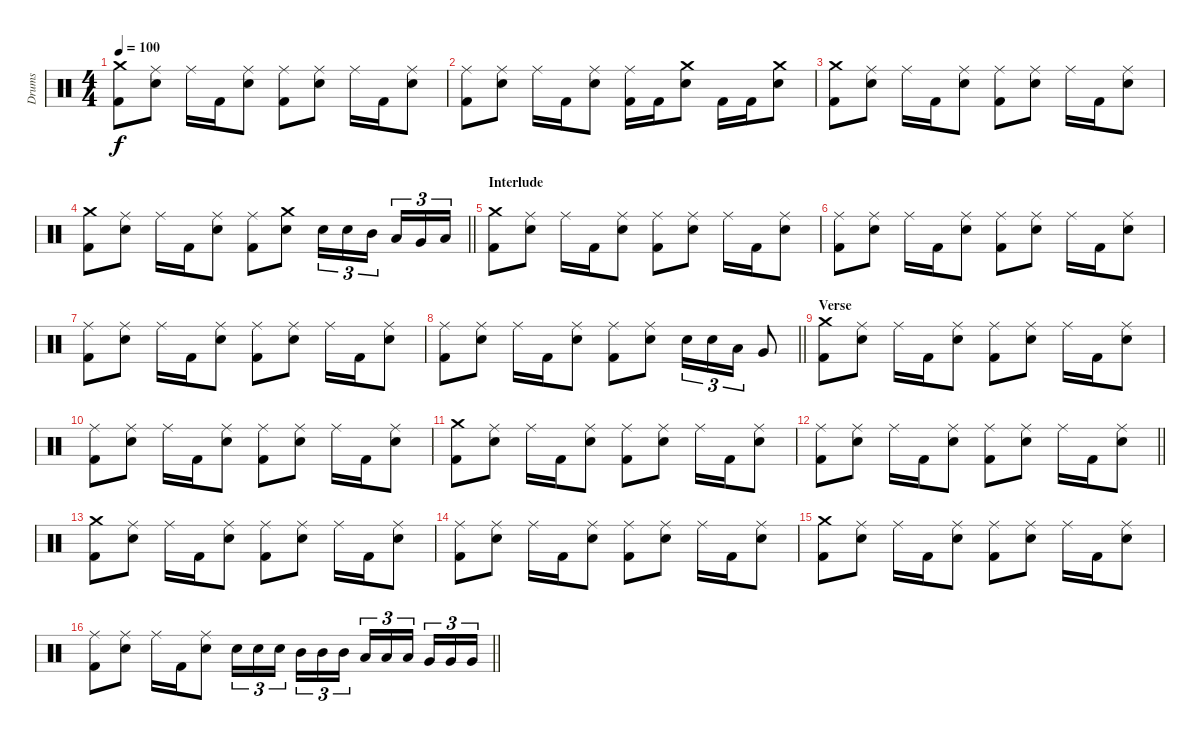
\track ("Drums" "Drums") {instrument percussion}
\staff {score}
\articulation defaults
\ts (4 4)
\tempo 100
\clef neutral
\ks c
("Crash medium (hit)" "Kick (hit) 2").8{dy f} ("Ride (middle)" "Electric Snare (hit)").8 "Ride (middle)".16 "Kick (hit) 2".16 ("Ride (middle)" "Electric Snare (hit)").8 ("Ride (middle)" "Kick (hit) 2").8 ("Ride (middle)" "Electric Snare (hit)").8 "Ride (middle)".16 "Kick (hit) 2".16 ("Ride (middle)" "Electric Snare (hit)").8 |
("Ride (middle)" "Kick (hit) 2").8 ("Ride (middle)" "Electric Snare (hit)").8 "Ride (middle)".16 "Kick (hit) 2".16 ("Ride (middle)" "Electric Snare (hit)").8 ("Ride (middle)" "Kick (hit) 2").16 "Kick (hit) 2".16 ("Crash medium (hit)" "Electric Snare (hit)").8 "Kick (hit) 2".16 "Kick (hit) 2".16 ("Crash medium (hit)" "Electric Snare (hit)").8 |
("Crash medium (hit)" "Kick (hit) 2").8 ("Ride (middle)" "Electric Snare (hit)").8 "Ride (middle)".16 "Kick (hit) 2".16 ("Ride (middle)" "Electric Snare (hit)").8 ("Ride (middle)" "Kick (hit) 2").8 ("Ride (middle)" "Electric Snare (hit)").8 "Ride (middle)".16 "Kick (hit) 2".16 ("Ride (middle)" "Electric Snare (hit)").8 |
\barLineRight lightlight
("Crash medium (hit)" "Kick (hit) 2").8 ("Ride (middle)" "Electric Snare (hit)").8 "Ride (middle)".16 "Kick (hit) 2".16 ("Ride (middle)" "Electric Snare (hit)").8 ("Ride (middle)" "Kick (hit) 2").8 ("Crash medium (hit)" "Electric Snare (hit)").8 "Electric Snare (hit)".16{tu (3 2)} "Electric Snare (hit)".16{tu (3 2)} "Mid Tom (hit)".16{tu (3 2)} "Low Tom (hit)".16{tu (3 2)} "Very Low Tom (hit)".16{tu (3 2)} "Low Floor Tom (hit)".16{tu (3 2)} |
\section ("" "Interlude")
("Crash medium (hit)" "Kick (hit) 2").8 ("Ride (middle)" "Electric Snare (hit)").8 "Ride (middle)".16 "Kick (hit) 2".16 ("Ride (middle)" "Electric Snare (hit)").8 ("Ride (middle)" "Kick (hit) 2").8 ("Ride (middle)" "Electric Snare (hit)").8 "Ride (middle)".16 "Kick (hit) 2".16 ("Ride (middle)" "Electric Snare (hit)").8 |
("Ride (middle)" "Kick (hit) 2").8 ("Ride (middle)" "Electric Snare (hit)").8 "Ride (middle)".16 "Kick (hit) 2".16 ("Ride (middle)" "Electric Snare (hit)").8 ("Ride (middle)" "Kick (hit) 2").8 ("Ride (middle)" "Electric Snare (hit)").8 "Ride (middle)".16 "Kick (hit) 2".16 ("Ride (middle)" "Electric Snare (hit)").8 |
("Ride (middle)" "Kick (hit) 2").8 ("Ride (middle)" "Electric Snare (hit)").8 "Ride (middle)".16 "Kick (hit) 2".16 ("Ride (middle)" "Electric Snare (hit)").8 ("Ride (middle)" "Kick (hit) 2").8 ("Ride (middle)" "Electric Snare (hit)").8 "Ride (middle)".16 "Kick (hit) 2".16 ("Ride (middle)" "Electric Snare (hit)").8 |
\barLineRight lightlight
("Ride (middle)" "Kick (hit) 2").8 ("Ride (middle)" "Electric Snare (hit)").8 "Ride (middle)".16 "Kick (hit) 2".16 ("Ride (middle)" "Electric Snare (hit)").8 ("Ride (middle)" "Kick (hit) 2").8 ("Ride (middle)" "Electric Snare (hit)").8 "Electric Snare (hit)".16{tu (3 2)} "Electric Snare (hit)".16{tu (3 2)} "Low Tom (hit)".16{tu (3 2)} "Very Low Tom (hit)".8 |
\section ("" "Verse")
("Crash medium (hit)" "Kick (hit) 2").8 ("Ride (middle)" "Electric Snare (hit)").8 "Ride (middle)".16 "Kick (hit) 2".16 ("Ride (middle)" "Electric Snare (hit)").8 ("Ride (middle)" "Kick (hit) 2").8 ("Ride (middle)" "Electric Snare (hit)").8 "Ride (middle)".16 "Kick (hit) 2".16 ("Ride (middle)" "Electric Snare (hit)").8 |
("Ride (middle)" "Kick (hit) 2").8 ("Ride (middle)" "Electric Snare (hit)").8 "Ride (middle)".16 "Kick (hit) 2".16 ("Ride (middle)" "Electric Snare (hit)").8 ("Ride (middle)" "Kick (hit) 2").8 ("Ride (middle)" "Electric Snare (hit)").8 "Ride (middle)".16 "Kick (hit) 2".16 ("Ride (middle)" "Electric Snare (hit)").8 |
("Crash medium (hit)" "Kick (hit) 2").8 ("Ride (middle)" "Electric Snare (hit)").8 "Ride (middle)".16 "Kick (hit) 2".16 ("Ride (middle)" "Electric Snare (hit)").8 ("Ride (middle)" "Kick (hit) 2").8 ("Ride (middle)" "Electric Snare (hit)").8 "Ride (middle)".16 "Kick (hit) 2".16 ("Ride (middle)" "Electric Snare (hit)").8 |
\barLineRight lightlight
("Ride (middle)" "Kick (hit) 2").8 ("Ride (middle)" "Electric Snare (hit)").8 "Ride (middle)".16 "Kick (hit) 2".16 ("Ride (middle)" "Electric Snare (hit)").8 ("Ride (middle)" "Kick (hit) 2").8 ("Ride (middle)" "Electric Snare (hit)").8 "Ride (middle)".16 "Kick (hit) 2".16 ("Ride (middle)" "Electric Snare (hit)").8 |
("Crash medium (hit)" "Kick (hit) 2").8 ("Ride (middle)" "Electric Snare (hit)").8 "Ride (middle)".16 "Kick (hit) 2".16 ("Ride (middle)" "Electric Snare (hit)").8 ("Ride (middle)" "Kick (hit) 2").8 ("Ride (middle)" "Electric Snare (hit)").8 "Ride (middle)".16 "Kick (hit) 2".16 ("Ride (middle)" "Electric Snare (hit)").8 |
("Ride (middle)" "Kick (hit) 2").8 ("Ride (middle)" "Electric Snare (hit)").8 "Ride (middle)".16 "Kick (hit) 2".16 ("Ride (middle)" "Electric Snare (hit)").8 ("Ride (middle)" "Kick (hit) 2").8 ("Ride (middle)" "Electric Snare (hit)").8 "Ride (middle)".16 "Kick (hit) 2".16 ("Ride (middle)" "Electric Snare (hit)").8 |
("Crash medium (hit)" "Kick (hit) 2").8 ("Ride (middle)" "Electric Snare (hit)").8 "Ride (middle)".16 "Kick (hit) 2".16 ("Ride (middle)" "Electric Snare (hit)").8 ("Ride (middle)" "Kick (hit) 2").8 ("Ride (middle)" "Electric Snare (hit)").8 "Ride (middle)".16 "Kick (hit) 2".16 ("Ride (middle)" "Electric Snare (hit)").8 |
\barLineRight lightlight
("Ride (middle)" "Kick (hit) 2").8 ("Ride (middle)" "Electric Snare (hit)").8 "Ride (middle)".16 "Kick (hit) 2".16 ("Ride (middle)" "Electric Snare (hit)").8 "Electric Snare (hit)".16{tu (3 2)} "Electric Snare (hit)".16{tu (3 2)} "Electric Snare (hit)".16{tu (3 2)} "Mid Tom (hit)".16{tu (3 2)} "Mid Tom (hit)".16{tu (3 2)} "Mid Tom (hit)".16{tu (3 2)} "Low Tom (hit)".16{tu (3 2)} "Low Tom (hit)".16{tu (3 2)} "Low Tom (hit)".16{tu (3 2)} "Very Low Tom (hit)".16{tu (3 2)} "Very Low Tom (hit)".16{tu (3 2)} "Very Low Tom (hit)".16{tu (3 2)}
